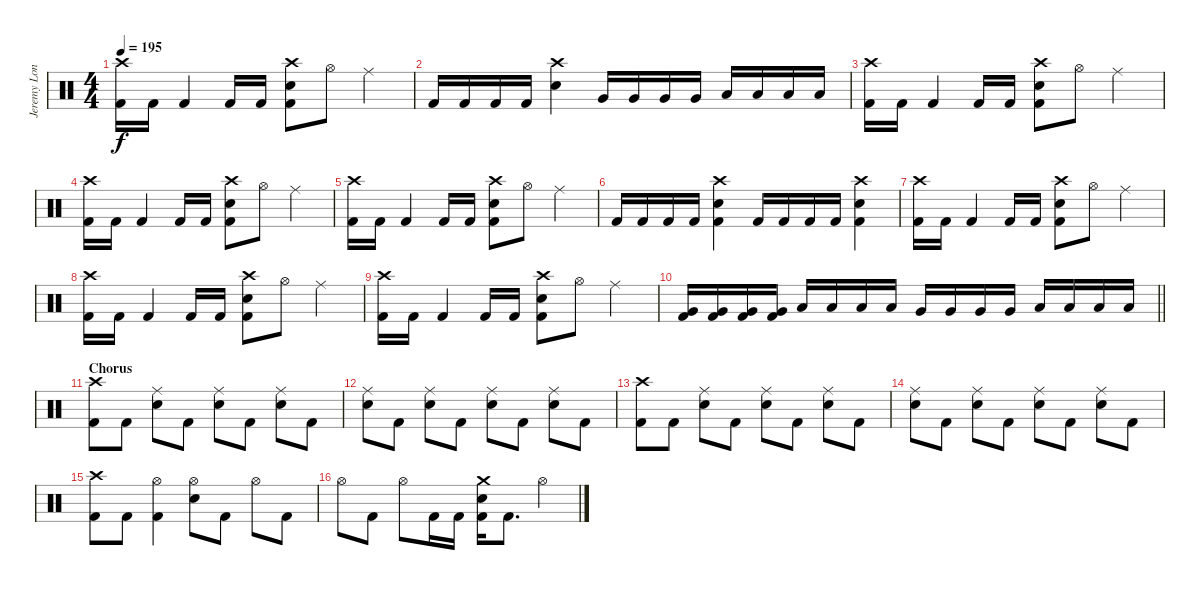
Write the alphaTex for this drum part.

\track ("Jeremy London" "Jeremy Lon") {instrument percussion}
\staff {score}
\articulation defaults
\ts (4 4)
\tempo 195
\clef neutral
\ks c
("Crash high (hit)" "Kick (hit) 2").16{dy f} "Kick (hit) 2".16 "Kick (hit) 2".4 "Kick (hit) 2".16 "Kick (hit) 2".16 ("Crash high (hit)" "Electric Snare (hit)" "Kick (hit) 2").8 "Hi-Hat (open)".8 "Ride (middle)".4 |
"Kick (hit) 2".16 "Kick (hit) 2".16 "Kick (hit) 2".16 "Kick (hit) 2".16 ("Crash high (hit)" "Electric Snare (hit)").4 "Very Low Tom (hit)".16 "Very Low Tom (hit)".16 "Very Low Tom (hit)".16 "Very Low Tom (hit)".16 "Low Floor Tom (hit)".16 "Low Floor Tom (hit)".16 "Low Floor Tom (hit)".16 "Low Floor Tom (hit)".16 |
("Crash high (hit)" "Kick (hit) 2").16 "Kick (hit) 2".16 "Kick (hit) 2".4 "Kick (hit) 2".16 "Kick (hit) 2".16 ("Crash high (hit)" "Electric Snare (hit)" "Kick (hit) 2").8 "Hi-Hat (open)".8 "Ride (middle)".4 |
("Crash high (hit)" "Kick (hit) 2").16 "Kick (hit) 2".16 "Kick (hit) 2".4 "Kick (hit) 2".16 "Kick (hit) 2".16 ("Crash high (hit)" "Electric Snare (hit)" "Kick (hit) 2").8 "Hi-Hat (open)".8 "Ride (middle)".4 |
("Crash high (hit)" "Kick (hit) 2").16 "Kick (hit) 2".16 "Kick (hit) 2".4 "Kick (hit) 2".16 "Kick (hit) 2".16 ("Crash high (hit)" "Electric Snare (hit)" "Kick (hit) 2").8 "Hi-Hat (open)".8 "Ride (middle)".4 |
"Kick (hit) 2".16 "Kick (hit) 2".16 "Kick (hit) 2".16 "Kick (hit) 2".16 ("Crash high (hit)" "Electric Snare (hit)" "Kick (hit) 2").4 "Kick (hit) 2".16 "Kick (hit) 2".16 "Kick (hit) 2".16 "Kick (hit) 2".16 ("Crash high (hit)" "Electric Snare (hit)" "Kick (hit) 2").4 |
("Crash high (hit)" "Kick (hit) 2").16 "Kick (hit) 2".16 "Kick (hit) 2".4 "Kick (hit) 2".16 "Kick (hit) 2".16 ("Crash high (hit)" "Electric Snare (hit)" "Kick (hit) 2").8 "Hi-Hat (open)".8 "Ride (middle)".4 |
("Crash high (hit)" "Kick (hit) 2").16 "Kick (hit) 2".16 "Kick (hit) 2".4 "Kick (hit) 2".16 "Kick (hit) 2".16 ("Crash high (hit)" "Electric Snare (hit)" "Kick (hit) 2").8 "Hi-Hat (open)".8 "Ride (middle)".4 |
("Crash high (hit)" "Kick (hit) 2").16 "Kick (hit) 2".16 "Kick (hit) 2".4 "Kick (hit) 2".16 "Kick (hit) 2".16 ("Crash high (hit)" "Electric Snare (hit)" "Kick (hit) 2").8 "Hi-Hat (open)".8 "Ride (middle)".4 |
\barLineRight lightlight
("Very Low Tom (hit)" "Kick (hit) 2").16 ("Very Low Tom (hit)" "Kick (hit) 2").16 ("Very Low Tom (hit)" "Kick (hit) 2").16 ("Very Low Tom (hit)" "Kick (hit) 2").16 "Low Tom (hit)".16 "Low Tom (hit)".16 "Low Tom (hit)".16 "Low Tom (hit)".16 "Very Low Tom (hit)".16 "Very Low Tom (hit)".16 "Very Low Tom (hit)".16 "Very Low Tom (hit)".16 "Low Floor Tom (hit)".16 "Low Floor Tom (hit)".16 "Low Floor Tom (hit)".16 "Low Floor Tom (hit)".16 |
\section ("" "Chorus")
("Crash high (hit)" "Kick (hit) 2").8 "Kick (hit) 2".8 ("Ride (middle)" "Electric Snare (hit)").8 "Kick (hit) 2".8 ("Ride (middle)" "Electric Snare (hit)").8 "Kick (hit) 2".8 ("Ride (middle)" "Electric Snare (hit)").8 "Kick (hit) 2".8 |
("Ride (middle)" "Electric Snare (hit)").8 "Kick (hit) 2".8 ("Ride (middle)" "Electric Snare (hit)").8 "Kick (hit) 2".8 ("Ride (middle)" "Electric Snare (hit)").8 "Kick (hit) 2".8 ("Ride (middle)" "Electric Snare (hit)").8 "Kick (hit) 2".8 |
("Crash high (hit)" "Kick (hit) 2").8 "Kick (hit) 2".8 ("Ride (middle)" "Electric Snare (hit)").8 "Kick (hit) 2".8 ("Ride (middle)" "Electric Snare (hit)").8 "Kick (hit) 2".8 ("Ride (middle)" "Electric Snare (hit)").8 "Kick (hit) 2".8 |
("Ride (middle)" "Electric Snare (hit)").8 "Kick (hit) 2".8 ("Ride (middle)" "Electric Snare (hit)").8 "Kick (hit) 2".8 ("Ride (middle)" "Electric Snare (hit)").8 "Kick (hit) 2".8 ("Ride (middle)" "Electric Snare (hit)").8 "Kick (hit) 2".8 |
("Crash high (hit)" "Kick (hit) 2").8 "Kick (hit) 2".8 ("Hi-Hat (open)" "Kick (hit) 2").4 ("Hi-Hat (open)" "Electric Snare (hit)").8 "Kick (hit) 2".8 "Hi-Hat (open)".8 "Kick (hit) 2".8 |
"Hi-Hat (open)".8 "Kick (hit) 2".8 "Hi-Hat (open)".8 "Kick (hit) 2".16 "Kick (hit) 2".16 ("Crash medium (hit)" "Electric Snare (hit)" "Kick (hit) 2").16 "Kick (hit) 2".8{d} "Hi-Hat (open)".4
